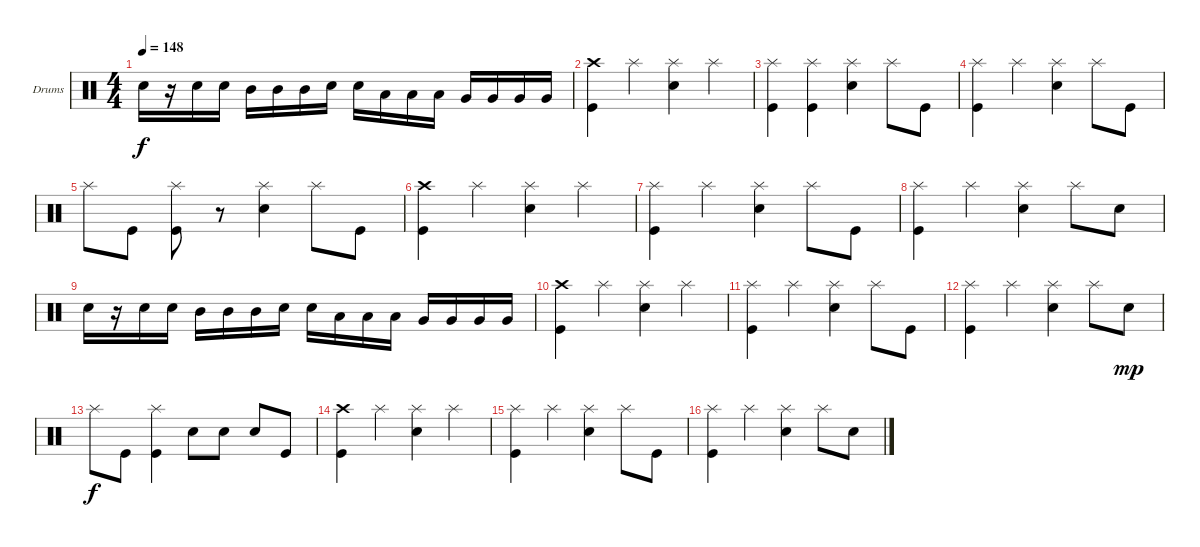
\bracketExtendMode groupsimilarinstruments
\firstSystemTrackNameOrientation horizontal
\otherSystemsTrackNameOrientation horizontal
\track ("Drumkit" "Drums") {instrument percussion}
\staff {score}
\articulation defaults
\ts (4 4)
\tempo 148
\clef neutral
\ks c "Snare (hit) 2".16{dy f}
r.16 "Snare (hit) 2".16 "Snare (hit) 2".16 "Mid Tom (hit)".16 "Mid Tom (hit)".16 "Mid Tom (hit)".16 "Snare (hit) 2".16 "Snare (hit) 2".16 "Low Tom (hit)".16 "Low Tom (hit)".16 "Low Tom (hit)".16 "Very Low Tom (hit)".16 "Very Low Tom (hit)".16 "Very Low Tom (hit)".16 "Very Low Tom (hit)".16 |
("Crash high (hit)" "Kick (hit)").4 "Splash (hit)".4 ("Splash (hit)" "Snare (hit) 2").4 "Splash (hit)".4 |
("Splash (hit)" "Kick (hit)").4 ("Splash (hit)" "Kick (hit)").4 ("Splash (hit)" "Snare (hit) 2").4 "Splash (hit)".8 "Kick (hit)".8 |
("Splash (hit)" "Kick (hit)").4 "Splash (hit)".4 ("Splash (hit)" "Snare (hit) 2").4 "Splash (hit)".8 "Kick (hit)".8 |
"Splash (hit)".8 "Kick (hit)".8 ("Splash (hit)" "Kick (hit)").8 r.8 ("Splash (hit)" "Snare (hit) 2").4 "Splash (hit)".8 "Kick (hit)".8 |
("Crash high (hit)" "Kick (hit)").4 "Splash (hit)".4 ("Splash (hit)" "Snare (hit) 2").4 "Splash (hit)".4 |
("Splash (hit)" "Kick (hit)").4 "Splash (hit)".4 ("Splash (hit)" "Snare (hit) 2").4 "Splash (hit)".8 "Kick (hit)".8 |
("Splash (hit)" "Kick (hit)").4 "Splash (hit)".4 ("Splash (hit)" "Snare (hit) 2").4 "Splash (hit)".8 "Snare (hit) 2".8 |
"Snare (hit) 2".16 r.16 "Snare (hit) 2".16 "Snare (hit) 2".16 "Mid Tom (hit)".16 "Mid Tom (hit)".16 "Mid Tom (hit)".16 "Snare (hit) 2".16 "Snare (hit) 2".16 "Low Tom (hit)".16 "Low Tom (hit)".16 "Low Tom (hit)".16 "Very Low Tom (hit)".16 "Very Low Tom (hit)".16 "Very Low Tom (hit)".16 "Very Low Tom (hit)".16 |
("Crash high (hit)" "Kick (hit)").4 "Splash (hit)".4 ("Splash (hit)" "Snare (hit) 2").4 "Splash (hit)".4 |
("Splash (hit)" "Kick (hit)").4 "Splash (hit)".4 ("Splash (hit)" "Snare (hit) 2").4 "Splash (hit)".8 "Kick (hit)".8 |
("Splash (hit)" "Kick (hit)").4 "Splash (hit)".4 ("Splash (hit)" "Snare (hit) 2").4 "Splash (hit)".8 "Snare (hit) 2".8{dy mp} |
"Splash (hit)".8{dy f} "Kick (hit)".8 ("Splash (hit)" "Kick (hit)").4 "Snare (hit) 2".8 "Snare (hit) 2".8 "Snare (hit) 2".8 "Kick (hit)".8 |
("Crash high (hit)" "Kick (hit)").4 "Splash (hit)".4 ("Splash (hit)" "Snare (hit) 2").4 "Splash (hit)".4 |
("Splash (hit)" "Kick (hit)").4 "Splash (hit)".4 ("Splash (hit)" "Snare (hit) 2").4 "Splash (hit)".8 "Kick (hit)".8 |
("Splash (hit)" "Kick (hit)").4 "Splash (hit)".4 ("Splash (hit)" "Snare (hit) 2").4 "Splash (hit)".8 "Snare (hit) 2".8
